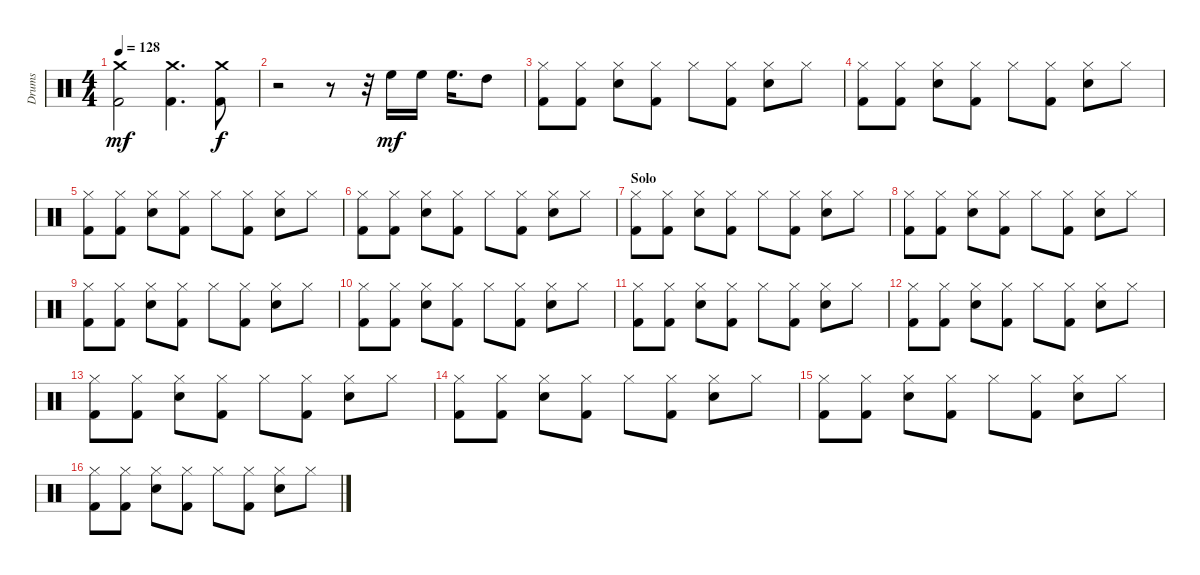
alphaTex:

\track ("Drums" "Drums") {instrument percussion}
\staff {score}
\articulation defaults
\ts (4 4)
\tempo 128
\clef neutral
\ks c
("Crash medium (hit)" "Kick (hit) 2").2{dy mf} ("Crash medium (hit)" "Kick (hit) 2").4{d} ("Crash medium (hit)" "Kick (hit) 2").8{dy f} |
r.2 r.8 r.32 "High Floor Tom (hit)".16{dy mf} "High Floor Tom (hit)".16 "High Floor Tom (hit)".16{d} "High Tom (hit)".8 |
("Hi-Hat (closed)" "Kick (hit) 2").8 ("Hi-Hat (closed)" "Kick (hit) 2").8 ("Hi-Hat (closed)" "Snare (hit) 2").8 ("Hi-Hat (closed)" "Kick (hit) 2").8 "Hi-Hat (closed)".8 ("Hi-Hat (closed)" "Kick (hit) 2").8 ("Hi-Hat (closed)" "Snare (hit) 2").8 "Hi-Hat (closed)".8 |
("Hi-Hat (closed)" "Kick (hit) 2").8 ("Hi-Hat (closed)" "Kick (hit) 2").8 ("Hi-Hat (closed)" "Snare (hit) 2").8 ("Hi-Hat (closed)" "Kick (hit) 2").8 "Hi-Hat (closed)".8 ("Hi-Hat (closed)" "Kick (hit) 2").8 ("Hi-Hat (closed)" "Snare (hit) 2").8 "Hi-Hat (closed)".8 |
("Hi-Hat (closed)" "Kick (hit) 2").8 ("Hi-Hat (closed)" "Kick (hit) 2").8 ("Hi-Hat (closed)" "Snare (hit) 2").8 ("Hi-Hat (closed)" "Kick (hit) 2").8 "Hi-Hat (closed)".8 ("Hi-Hat (closed)" "Kick (hit) 2").8 ("Hi-Hat (closed)" "Snare (hit) 2").8 "Hi-Hat (closed)".8 |
("Hi-Hat (closed)" "Kick (hit) 2").8 ("Hi-Hat (closed)" "Kick (hit) 2").8 ("Hi-Hat (closed)" "Snare (hit) 2").8 ("Hi-Hat (closed)" "Kick (hit) 2").8 "Hi-Hat (closed)".8 ("Hi-Hat (closed)" "Kick (hit) 2").8 ("Hi-Hat (closed)" "Snare (hit) 2").8 "Hi-Hat (closed)".8 |
\section ("" "Solo")
("Hi-Hat (closed)" "Kick (hit) 2").8 ("Hi-Hat (closed)" "Kick (hit) 2").8 ("Hi-Hat (closed)" "Snare (hit) 2").8 ("Hi-Hat (closed)" "Kick (hit) 2").8 "Hi-Hat (closed)".8 ("Hi-Hat (closed)" "Kick (hit) 2").8 ("Hi-Hat (closed)" "Snare (hit) 2").8 "Hi-Hat (closed)".8 |
("Hi-Hat (closed)" "Kick (hit) 2").8 ("Hi-Hat (closed)" "Kick (hit) 2").8 ("Hi-Hat (closed)" "Snare (hit) 2").8 ("Hi-Hat (closed)" "Kick (hit) 2").8 "Hi-Hat (closed)".8 ("Hi-Hat (closed)" "Kick (hit) 2").8 ("Hi-Hat (closed)" "Snare (hit) 2").8 "Hi-Hat (closed)".8 |
("Hi-Hat (closed)" "Kick (hit) 2").8 ("Hi-Hat (closed)" "Kick (hit) 2").8 ("Hi-Hat (closed)" "Snare (hit) 2").8 ("Hi-Hat (closed)" "Kick (hit) 2").8 "Hi-Hat (closed)".8 ("Hi-Hat (closed)" "Kick (hit) 2").8 ("Hi-Hat (closed)" "Snare (hit) 2").8 "Hi-Hat (closed)".8 |
("Hi-Hat (closed)" "Kick (hit) 2").8 ("Hi-Hat (closed)" "Kick (hit) 2").8 ("Hi-Hat (closed)" "Snare (hit) 2").8 ("Hi-Hat (closed)" "Kick (hit) 2").8 "Hi-Hat (closed)".8 ("Hi-Hat (closed)" "Kick (hit) 2").8 ("Hi-Hat (closed)" "Snare (hit) 2").8 "Hi-Hat (closed)".8 |
("Hi-Hat (closed)" "Kick (hit) 2").8 ("Hi-Hat (closed)" "Kick (hit) 2").8 ("Hi-Hat (closed)" "Snare (hit) 2").8 ("Hi-Hat (closed)" "Kick (hit) 2").8 "Hi-Hat (closed)".8 ("Hi-Hat (closed)" "Kick (hit) 2").8 ("Hi-Hat (closed)" "Snare (hit) 2").8 "Hi-Hat (closed)".8 |
("Hi-Hat (closed)" "Kick (hit) 2").8 ("Hi-Hat (closed)" "Kick (hit) 2").8 ("Hi-Hat (closed)" "Snare (hit) 2").8 ("Hi-Hat (closed)" "Kick (hit) 2").8 "Hi-Hat (closed)".8 ("Hi-Hat (closed)" "Kick (hit) 2").8 ("Hi-Hat (closed)" "Snare (hit) 2").8 "Hi-Hat (closed)".8 |
("Hi-Hat (closed)" "Kick (hit) 2").8 ("Hi-Hat (closed)" "Kick (hit) 2").8 ("Hi-Hat (closed)" "Snare (hit) 2").8 ("Hi-Hat (closed)" "Kick (hit) 2").8 "Hi-Hat (closed)".8 ("Hi-Hat (closed)" "Kick (hit) 2").8 ("Hi-Hat (closed)" "Snare (hit) 2").8 "Hi-Hat (closed)".8 |
("Hi-Hat (closed)" "Kick (hit) 2").8 ("Hi-Hat (closed)" "Kick (hit) 2").8 ("Hi-Hat (closed)" "Snare (hit) 2").8 ("Hi-Hat (closed)" "Kick (hit) 2").8 "Hi-Hat (closed)".8 ("Hi-Hat (closed)" "Kick (hit) 2").8 ("Hi-Hat (closed)" "Snare (hit) 2").8 "Hi-Hat (closed)".8 |
("Hi-Hat (closed)" "Kick (hit) 2").8 ("Hi-Hat (closed)" "Kick (hit) 2").8 ("Hi-Hat (closed)" "Snare (hit) 2").8 ("Hi-Hat (closed)" "Kick (hit) 2").8 "Hi-Hat (closed)".8 ("Hi-Hat (closed)" "Kick (hit) 2").8 ("Hi-Hat (closed)" "Snare (hit) 2").8 "Hi-Hat (closed)".8 |
("Hi-Hat (closed)" "Kick (hit) 2").8 ("Hi-Hat (closed)" "Kick (hit) 2").8 ("Hi-Hat (closed)" "Snare (hit) 2").8 ("Hi-Hat (closed)" "Kick (hit) 2").8 "Hi-Hat (closed)".8 ("Hi-Hat (closed)" "Kick (hit) 2").8 ("Hi-Hat (closed)" "Snare (hit) 2").8 "Hi-Hat (closed)".8
